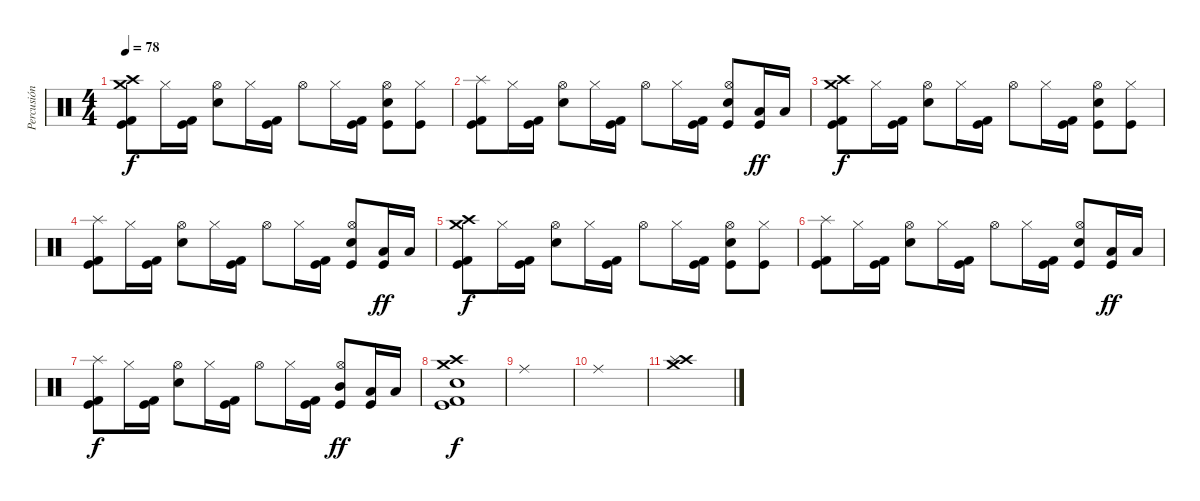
\track ("Percusión" "Percusión") {instrument percussion}
\staff {score}
\articulation defaults
\ts (4 4)
\tempo 78
\clef neutral
\ks c
("Crash high (hit)" "Crash medium (hit)" "Kick (hit) 2" "Kick (hit)").8{dy f} "Hi-Hat (closed)".16 ("Kick (hit) 2" "Kick (hit)").16 ("Hi-Hat (open)" "Electric Snare (hit)").8 "Hi-Hat (closed)".16 ("Kick (hit) 2" "Kick (hit)").16 "Hi-Hat (open)".8 "Hi-Hat (closed)".16 ("Kick (hit)" "Kick (hit) 2").16 ("Hi-Hat (open)" "Electric Snare (hit)" "Kick (hit)").8 ("Hi-Hat (closed)" "Kick (hit)").8 |
("Splash (hit)" "Kick (hit) 2" "Kick (hit)").8 "Hi-Hat (closed)".16 ("Kick (hit) 2" "Kick (hit)").16 ("Hi-Hat (open)" "Electric Snare (hit)").8 "Hi-Hat (closed)".16 ("Kick (hit) 2" "Kick (hit)").16 "Hi-Hat (open)".8 "Hi-Hat (closed)".16 ("Kick (hit)" "Kick (hit) 2").16 ("Hi-Hat (open)" "Electric Snare (hit)" "Kick (hit)").8 ("Low Floor Tom (hit)" "Kick (hit)").16{dy ff} "Low Tom (hit)".16 |
("Crash high (hit)" "Crash medium (hit)" "Kick (hit) 2" "Kick (hit)").8{dy f} "Hi-Hat (closed)".16 ("Kick (hit) 2" "Kick (hit)").16 ("Hi-Hat (open)" "Electric Snare (hit)").8 "Hi-Hat (closed)".16 ("Kick (hit) 2" "Kick (hit)").16 "Hi-Hat (open)".8 "Hi-Hat (closed)".16 ("Kick (hit)" "Kick (hit) 2").16 ("Hi-Hat (open)" "Electric Snare (hit)" "Kick (hit)").8 ("Hi-Hat (closed)" "Kick (hit)").8 |
("Splash (hit)" "Kick (hit) 2" "Kick (hit)").8 "Hi-Hat (closed)".16 ("Kick (hit) 2" "Kick (hit)").16 ("Hi-Hat (open)" "Electric Snare (hit)").8 "Hi-Hat (closed)".16 ("Kick (hit) 2" "Kick (hit)").16 "Hi-Hat (open)".8 "Hi-Hat (closed)".16 ("Kick (hit)" "Kick (hit) 2").16 ("Hi-Hat (open)" "Electric Snare (hit)" "Kick (hit)").8 ("Low Floor Tom (hit)" "Kick (hit)").16{dy ff} "Low Tom (hit)".16 |
("Crash high (hit)" "Crash medium (hit)" "Kick (hit) 2" "Kick (hit)").8{dy f} "Hi-Hat (closed)".16 ("Kick (hit) 2" "Kick (hit)").16 ("Hi-Hat (open)" "Electric Snare (hit)").8 "Hi-Hat (closed)".16 ("Kick (hit) 2" "Kick (hit)").16 "Hi-Hat (open)".8 "Hi-Hat (closed)".16 ("Kick (hit)" "Kick (hit) 2").16 ("Hi-Hat (open)" "Electric Snare (hit)" "Kick (hit)").8 ("Hi-Hat (closed)" "Kick (hit)").8 |
("Splash (hit)" "Kick (hit) 2" "Kick (hit)").8 "Hi-Hat (closed)".16 ("Kick (hit) 2" "Kick (hit)").16 ("Hi-Hat (open)" "Electric Snare (hit)").8 "Hi-Hat (closed)".16 ("Kick (hit) 2" "Kick (hit)").16 "Hi-Hat (open)".8 "Hi-Hat (closed)".16 ("Kick (hit)" "Kick (hit) 2").16 ("Hi-Hat (open)" "Electric Snare (hit)" "Kick (hit)").8 ("Low Floor Tom (hit)" "Kick (hit)").16{dy ff} "Low Tom (hit)".16 |
("Splash (hit)" "Kick (hit) 2" "Kick (hit)").8{dy f} "Hi-Hat (closed)".16 ("Kick (hit) 2" "Kick (hit)").16 ("Hi-Hat (open)" "Electric Snare (hit)").8 "Hi-Hat (closed)".16 ("Kick (hit) 2" "Kick (hit)").16 "Hi-Hat (open)".8 "Hi-Hat (closed)".16 ("Kick (hit)" "Kick (hit) 2").16 ("Hi-Hat (open)" "Mid Tom (hit)" "Kick (hit)").8{dy ff} ("Low Floor Tom (hit)" "Kick (hit)").16 "Low Tom (hit)".16 |
("Crash medium (hit)" "Crash high (hit)" "Electric Snare (hit)" "Kick (hit) 2" "Kick (hit)").1{dy f} |
"Ride (middle)".1 |
"Ride (middle)".1 |
("Crash medium (hit)" "Crash high (hit)" "Splash (hit)").1
